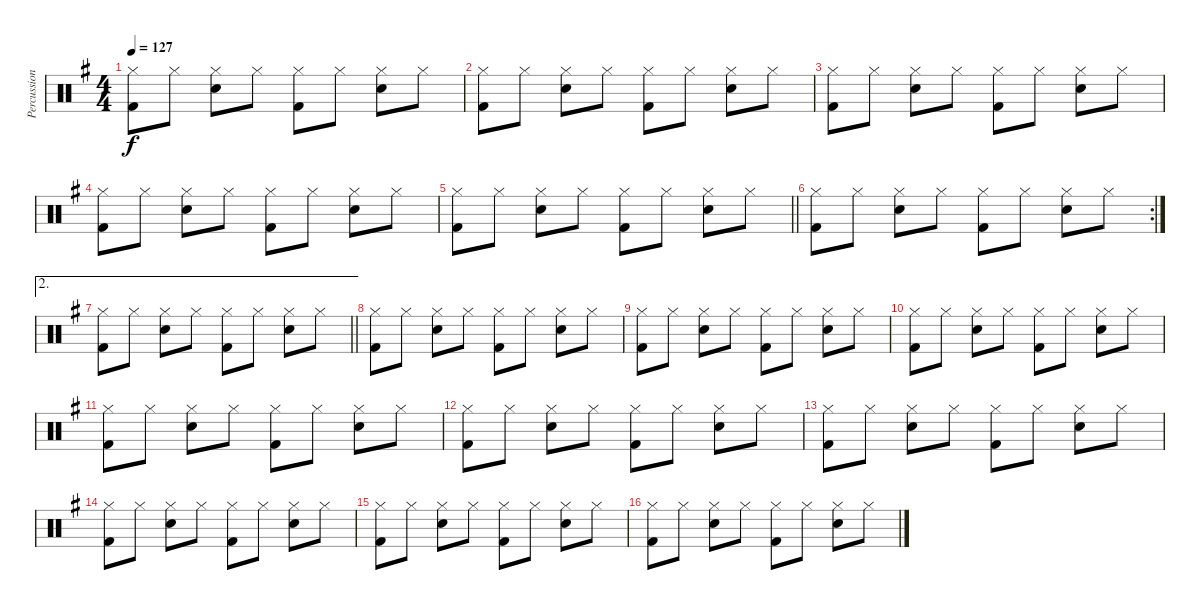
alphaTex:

\track ("Percussion" "Percussion") {instrument percussion}
\staff {score}
\articulation defaults
\ts (4 4)
\tempo 127
\clef neutral
\ks g
("Hi-Hat (closed)" "Kick (hit) 2").8{dy f} "Hi-Hat (closed)".8 ("Hi-Hat (closed)" "Snare (hit) 2").8 "Hi-Hat (closed)".8 ("Hi-Hat (closed)" "Kick (hit) 2").8 "Hi-Hat (closed)".8 ("Hi-Hat (closed)" "Snare (hit) 2").8 "Hi-Hat (closed)".8 |
("Hi-Hat (closed)" "Kick (hit) 2").8 "Hi-Hat (closed)".8 ("Hi-Hat (closed)" "Snare (hit) 2").8 "Hi-Hat (closed)".8 ("Hi-Hat (closed)" "Kick (hit) 2").8 "Hi-Hat (closed)".8 ("Hi-Hat (closed)" "Snare (hit) 2").8 "Hi-Hat (closed)".8 |
("Hi-Hat (closed)" "Kick (hit) 2").8 "Hi-Hat (closed)".8 ("Hi-Hat (closed)" "Snare (hit) 2").8 "Hi-Hat (closed)".8 ("Hi-Hat (closed)" "Kick (hit) 2").8 "Hi-Hat (closed)".8 ("Hi-Hat (closed)" "Snare (hit) 2").8 "Hi-Hat (closed)".8 |
("Hi-Hat (closed)" "Kick (hit) 2").8 "Hi-Hat (closed)".8 ("Hi-Hat (closed)" "Snare (hit) 2").8 "Hi-Hat (closed)".8 ("Hi-Hat (closed)" "Kick (hit) 2").8 "Hi-Hat (closed)".8 ("Hi-Hat (closed)" "Snare (hit) 2").8 "Hi-Hat (closed)".8 |
\barLineRight lightlight
("Hi-Hat (closed)" "Kick (hit) 2").8 "Hi-Hat (closed)".8 ("Hi-Hat (closed)" "Snare (hit) 2").8 "Hi-Hat (closed)".8 ("Hi-Hat (closed)" "Kick (hit) 2").8 "Hi-Hat (closed)".8 ("Hi-Hat (closed)" "Snare (hit) 2").8 "Hi-Hat (closed)".8 |
\rc 2
("Hi-Hat (closed)" "Kick (hit) 2").8 "Hi-Hat (closed)".8 ("Hi-Hat (closed)" "Snare (hit) 2").8 "Hi-Hat (closed)".8 ("Hi-Hat (closed)" "Kick (hit) 2").8 "Hi-Hat (closed)".8 ("Hi-Hat (closed)" "Snare (hit) 2").8 "Hi-Hat (closed)".8 |
\ae 2
\barLineRight lightlight
("Hi-Hat (closed)" "Kick (hit) 2").8 "Hi-Hat (closed)".8 ("Hi-Hat (closed)" "Snare (hit) 2").8 "Hi-Hat (closed)".8 ("Hi-Hat (closed)" "Kick (hit) 2").8 "Hi-Hat (closed)".8 ("Hi-Hat (closed)" "Snare (hit) 2").8 "Hi-Hat (closed)".8 |
("Hi-Hat (closed)" "Kick (hit) 2").8 "Hi-Hat (closed)".8 ("Hi-Hat (closed)" "Snare (hit) 2").8 "Hi-Hat (closed)".8 ("Hi-Hat (closed)" "Kick (hit) 2").8 "Hi-Hat (closed)".8 ("Hi-Hat (closed)" "Snare (hit) 2").8 "Hi-Hat (closed)".8 |
("Hi-Hat (closed)" "Kick (hit) 2").8 "Hi-Hat (closed)".8 ("Hi-Hat (closed)" "Snare (hit) 2").8 "Hi-Hat (closed)".8 ("Hi-Hat (closed)" "Kick (hit) 2").8 "Hi-Hat (closed)".8 ("Hi-Hat (closed)" "Snare (hit) 2").8 "Hi-Hat (closed)".8 |
("Hi-Hat (closed)" "Kick (hit) 2").8 "Hi-Hat (closed)".8 ("Hi-Hat (closed)" "Snare (hit) 2").8 "Hi-Hat (closed)".8 ("Hi-Hat (closed)" "Kick (hit) 2").8 "Hi-Hat (closed)".8 ("Hi-Hat (closed)" "Snare (hit) 2").8 "Hi-Hat (closed)".8 |
("Hi-Hat (closed)" "Kick (hit) 2").8 "Hi-Hat (closed)".8 ("Hi-Hat (closed)" "Snare (hit) 2").8 "Hi-Hat (closed)".8 ("Hi-Hat (closed)" "Kick (hit) 2").8 "Hi-Hat (closed)".8 ("Hi-Hat (closed)" "Snare (hit) 2").8 "Hi-Hat (closed)".8 |
("Hi-Hat (closed)" "Kick (hit) 2").8 "Hi-Hat (closed)".8 ("Hi-Hat (closed)" "Snare (hit) 2").8 "Hi-Hat (closed)".8 ("Hi-Hat (closed)" "Kick (hit) 2").8 "Hi-Hat (closed)".8 ("Hi-Hat (closed)" "Snare (hit) 2").8 "Hi-Hat (closed)".8 |
("Hi-Hat (closed)" "Kick (hit) 2").8 "Hi-Hat (closed)".8 ("Hi-Hat (closed)" "Snare (hit) 2").8 "Hi-Hat (closed)".8 ("Hi-Hat (closed)" "Kick (hit) 2").8 "Hi-Hat (closed)".8 ("Hi-Hat (closed)" "Snare (hit) 2").8 "Hi-Hat (closed)".8 |
("Hi-Hat (closed)" "Kick (hit) 2").8 "Hi-Hat (closed)".8 ("Hi-Hat (closed)" "Snare (hit) 2").8 "Hi-Hat (closed)".8 ("Hi-Hat (closed)" "Kick (hit) 2").8 "Hi-Hat (closed)".8 ("Hi-Hat (closed)" "Snare (hit) 2").8 "Hi-Hat (closed)".8 |
("Hi-Hat (closed)" "Kick (hit) 2").8 "Hi-Hat (closed)".8 ("Hi-Hat (closed)" "Snare (hit) 2").8 "Hi-Hat (closed)".8 ("Hi-Hat (closed)" "Kick (hit) 2").8 "Hi-Hat (closed)".8 ("Hi-Hat (closed)" "Snare (hit) 2").8 "Hi-Hat (closed)".8 |
("Hi-Hat (closed)" "Kick (hit) 2").8 "Hi-Hat (closed)".8 ("Hi-Hat (closed)" "Snare (hit) 2").8 "Hi-Hat (closed)".8 ("Hi-Hat (closed)" "Kick (hit) 2").8 "Hi-Hat (closed)".8 ("Hi-Hat (closed)" "Snare (hit) 2").8 "Hi-Hat (closed)".8
